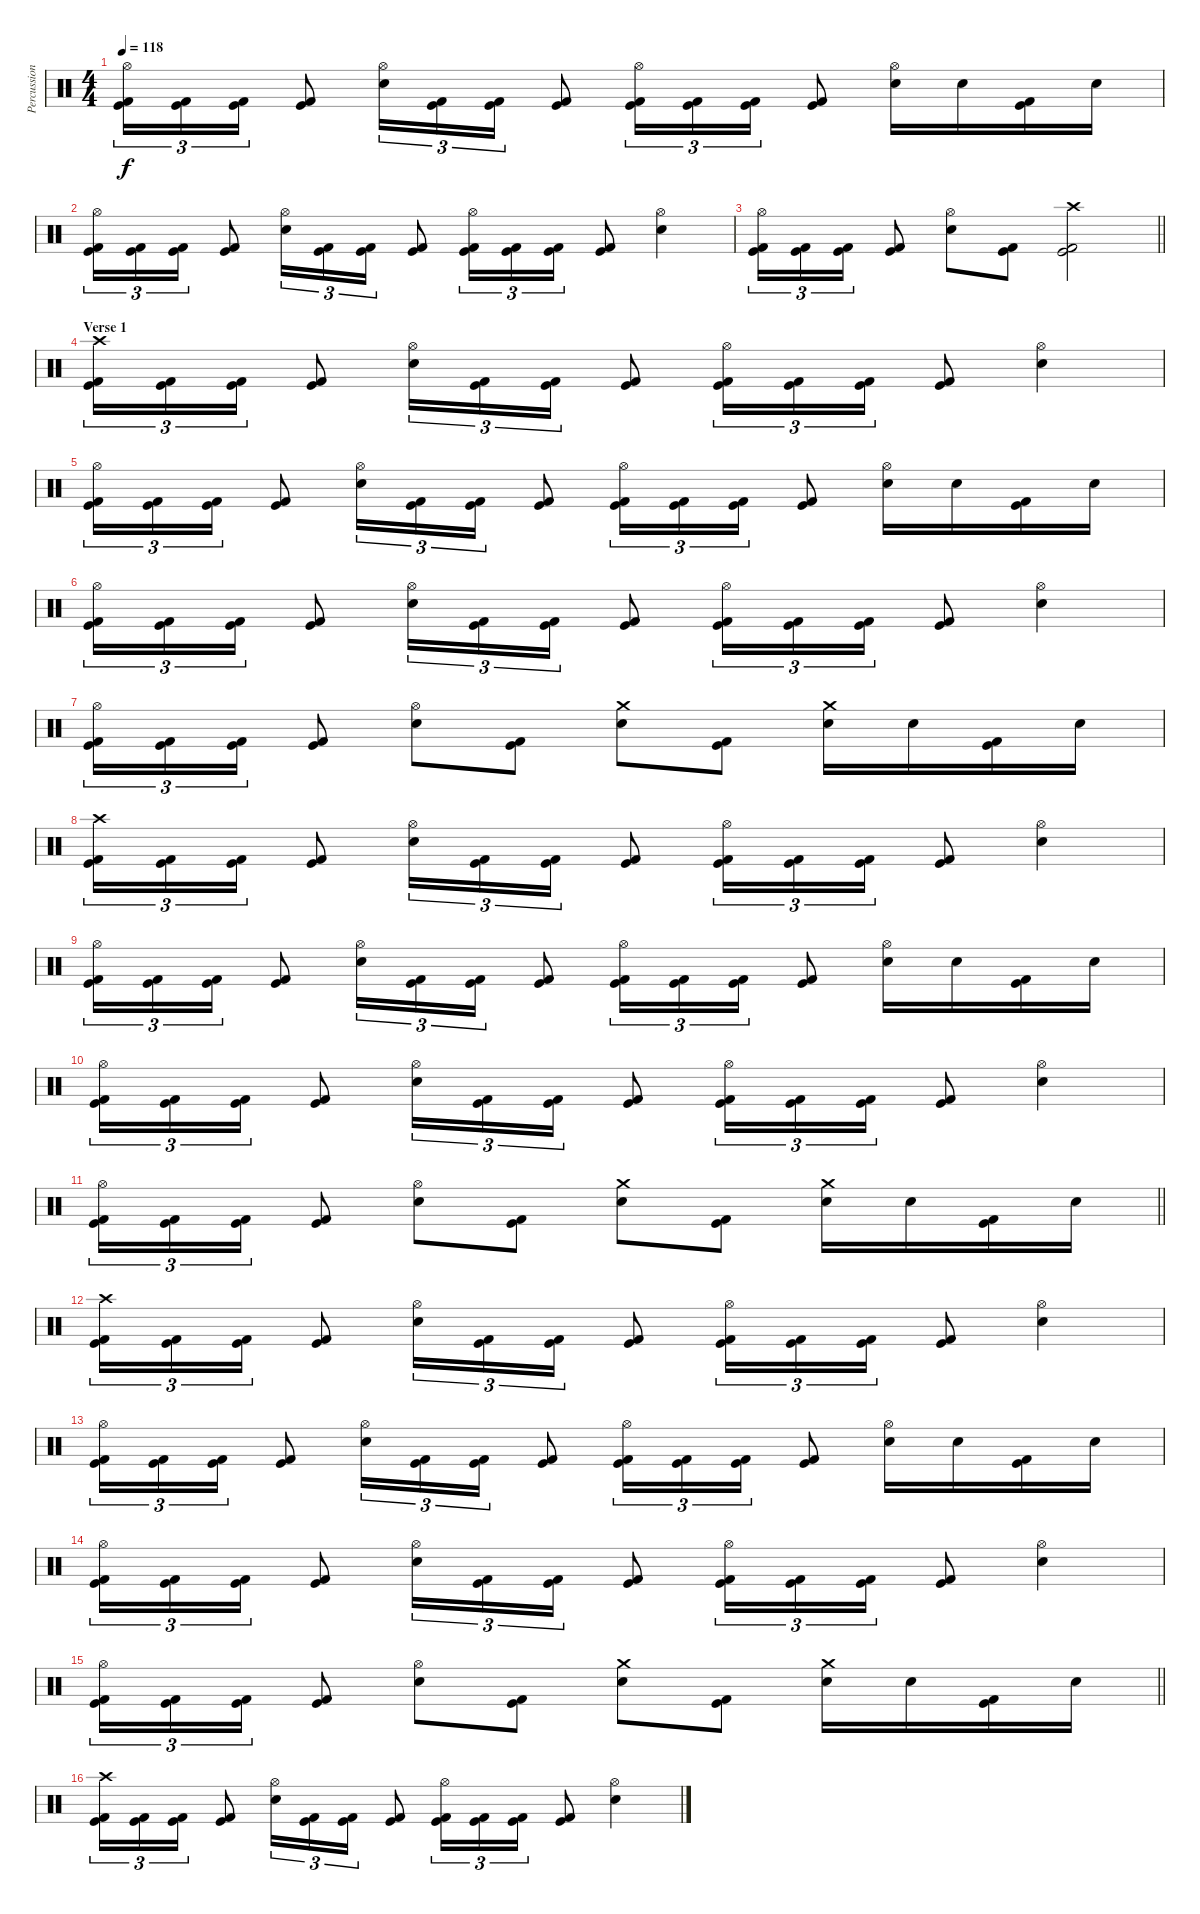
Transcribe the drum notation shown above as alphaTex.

\track ("Percussion" "Percussion") {instrument percussion}
\staff {score}
\articulation defaults
\ts (4 4)
\tempo 118
\clef neutral
\ks c
("Hi-Hat (open)" "Kick (hit)" "Kick (hit) 2").16{tu (3 2) dy f} ("Kick (hit)" "Kick (hit) 2").16{tu (3 2)} ("Kick (hit)" "Kick (hit) 2").16{tu (3 2)} ("Kick (hit)" "Kick (hit) 2").8 ("Hi-Hat (open)" "Electric Snare (hit)").16{tu (3 2)} ("Kick (hit)" "Kick (hit) 2").16{tu (3 2)} ("Kick (hit)" "Kick (hit) 2").16{tu (3 2)} ("Kick (hit)" "Kick (hit) 2").8 ("Hi-Hat (open)" "Kick (hit)" "Kick (hit) 2").16{tu (3 2)} ("Kick (hit)" "Kick (hit) 2").16{tu (3 2)} ("Kick (hit)" "Kick (hit) 2").16{tu (3 2)} ("Kick (hit)" "Kick (hit) 2").8 ("Hi-Hat (open)" "Electric Snare (hit)").16 "Electric Snare (hit)".16 ("Kick (hit)" "Kick (hit) 2").16 "Electric Snare (hit)".16 |
("Hi-Hat (open)" "Kick (hit)" "Kick (hit) 2").16{tu (3 2)} ("Kick (hit)" "Kick (hit) 2").16{tu (3 2)} ("Kick (hit)" "Kick (hit) 2").16{tu (3 2)} ("Kick (hit)" "Kick (hit) 2").8 ("Hi-Hat (open)" "Electric Snare (hit)").16{tu (3 2)} ("Kick (hit)" "Kick (hit) 2").16{tu (3 2)} ("Kick (hit)" "Kick (hit) 2").16{tu (3 2)} ("Kick (hit)" "Kick (hit) 2").8 ("Hi-Hat (open)" "Kick (hit)" "Kick (hit) 2").16{tu (3 2)} ("Kick (hit)" "Kick (hit) 2").16{tu (3 2)} ("Kick (hit)" "Kick (hit) 2").16{tu (3 2)} ("Kick (hit)" "Kick (hit) 2").8 ("Hi-Hat (open)" "Electric Snare (hit)").4 |
\barLineRight lightlight
("Hi-Hat (open)" "Kick (hit)" "Kick (hit) 2").16{tu (3 2)} ("Kick (hit)" "Kick (hit) 2").16{tu (3 2)} ("Kick (hit)" "Kick (hit) 2").16{tu (3 2)} ("Kick (hit)" "Kick (hit) 2").8 ("Hi-Hat (open)" "Electric Snare (hit)").8 ("Kick (hit)" "Kick (hit) 2").8 ("Crash high (hit)" "Kick (hit)" "Kick (hit) 2").2 |
\section ("" "Verse 1")
("Crash high (hit)" "Kick (hit)" "Kick (hit) 2").16{tu (3 2)} ("Kick (hit)" "Kick (hit) 2").16{tu (3 2)} ("Kick (hit)" "Kick (hit) 2").16{tu (3 2)} ("Kick (hit)" "Kick (hit) 2").8 ("Hi-Hat (open)" "Electric Snare (hit)").16{tu (3 2)} ("Kick (hit)" "Kick (hit) 2").16{tu (3 2)} ("Kick (hit)" "Kick (hit) 2").16{tu (3 2)} ("Kick (hit)" "Kick (hit) 2").8 ("Hi-Hat (open)" "Kick (hit)" "Kick (hit) 2").16{tu (3 2)} ("Kick (hit)" "Kick (hit) 2").16{tu (3 2)} ("Kick (hit)" "Kick (hit) 2").16{tu (3 2)} ("Kick (hit)" "Kick (hit) 2").8 ("Hi-Hat (open)" "Electric Snare (hit)").4 |
("Hi-Hat (open)" "Kick (hit)" "Kick (hit) 2").16{tu (3 2)} ("Kick (hit)" "Kick (hit) 2").16{tu (3 2)} ("Kick (hit)" "Kick (hit) 2").16{tu (3 2)} ("Kick (hit)" "Kick (hit) 2").8 ("Hi-Hat (open)" "Electric Snare (hit)").16{tu (3 2)} ("Kick (hit)" "Kick (hit) 2").16{tu (3 2)} ("Kick (hit)" "Kick (hit) 2").16{tu (3 2)} ("Kick (hit)" "Kick (hit) 2").8 ("Hi-Hat (open)" "Kick (hit)" "Kick (hit) 2").16{tu (3 2)} ("Kick (hit)" "Kick (hit) 2").16{tu (3 2)} ("Kick (hit)" "Kick (hit) 2").16{tu (3 2)} ("Kick (hit)" "Kick (hit) 2").8 ("Hi-Hat (open)" "Electric Snare (hit)").16 "Electric Snare (hit)".16 ("Kick (hit)" "Kick (hit) 2").16 "Electric Snare (hit)".16 |
("Hi-Hat (open)" "Kick (hit)" "Kick (hit) 2").16{tu (3 2)} ("Kick (hit)" "Kick (hit) 2").16{tu (3 2)} ("Kick (hit)" "Kick (hit) 2").16{tu (3 2)} ("Kick (hit)" "Kick (hit) 2").8 ("Hi-Hat (open)" "Electric Snare (hit)").16{tu (3 2)} ("Kick (hit)" "Kick (hit) 2").16{tu (3 2)} ("Kick (hit)" "Kick (hit) 2").16{tu (3 2)} ("Kick (hit)" "Kick (hit) 2").8 ("Hi-Hat (open)" "Kick (hit)" "Kick (hit) 2").16{tu (3 2)} ("Kick (hit)" "Kick (hit) 2").16{tu (3 2)} ("Kick (hit)" "Kick (hit) 2").16{tu (3 2)} ("Kick (hit)" "Kick (hit) 2").8 ("Hi-Hat (open)" "Electric Snare (hit)").4 |
("Hi-Hat (open)" "Kick (hit)" "Kick (hit) 2").16{tu (3 2)} ("Kick (hit)" "Kick (hit) 2").16{tu (3 2)} ("Kick (hit)" "Kick (hit) 2").16{tu (3 2)} ("Kick (hit)" "Kick (hit) 2").8 ("Hi-Hat (open)" "Electric Snare (hit)").8 ("Kick (hit)" "Kick (hit) 2").8 ("Crash medium (hit)" "Electric Snare (hit)").8 ("Kick (hit)" "Kick (hit) 2").8 ("Crash medium (hit)" "Electric Snare (hit)").16 "Electric Snare (hit)".16 ("Kick (hit)" "Kick (hit) 2").16 "Electric Snare (hit)".16 |
("Crash high (hit)" "Kick (hit)" "Kick (hit) 2").16{tu (3 2)} ("Kick (hit)" "Kick (hit) 2").16{tu (3 2)} ("Kick (hit)" "Kick (hit) 2").16{tu (3 2)} ("Kick (hit)" "Kick (hit) 2").8 ("Hi-Hat (open)" "Electric Snare (hit)").16{tu (3 2)} ("Kick (hit)" "Kick (hit) 2").16{tu (3 2)} ("Kick (hit)" "Kick (hit) 2").16{tu (3 2)} ("Kick (hit)" "Kick (hit) 2").8 ("Hi-Hat (open)" "Kick (hit)" "Kick (hit) 2").16{tu (3 2)} ("Kick (hit)" "Kick (hit) 2").16{tu (3 2)} ("Kick (hit)" "Kick (hit) 2").16{tu (3 2)} ("Kick (hit)" "Kick (hit) 2").8 ("Hi-Hat (open)" "Electric Snare (hit)").4 |
("Hi-Hat (open)" "Kick (hit)" "Kick (hit) 2").16{tu (3 2)} ("Kick (hit)" "Kick (hit) 2").16{tu (3 2)} ("Kick (hit)" "Kick (hit) 2").16{tu (3 2)} ("Kick (hit)" "Kick (hit) 2").8 ("Hi-Hat (open)" "Electric Snare (hit)").16{tu (3 2)} ("Kick (hit)" "Kick (hit) 2").16{tu (3 2)} ("Kick (hit)" "Kick (hit) 2").16{tu (3 2)} ("Kick (hit)" "Kick (hit) 2").8 ("Hi-Hat (open)" "Kick (hit)" "Kick (hit) 2").16{tu (3 2)} ("Kick (hit)" "Kick (hit) 2").16{tu (3 2)} ("Kick (hit)" "Kick (hit) 2").16{tu (3 2)} ("Kick (hit)" "Kick (hit) 2").8 ("Hi-Hat (open)" "Electric Snare (hit)").16 "Electric Snare (hit)".16 ("Kick (hit)" "Kick (hit) 2").16 "Electric Snare (hit)".16 |
("Hi-Hat (open)" "Kick (hit)" "Kick (hit) 2").16{tu (3 2)} ("Kick (hit)" "Kick (hit) 2").16{tu (3 2)} ("Kick (hit)" "Kick (hit) 2").16{tu (3 2)} ("Kick (hit)" "Kick (hit) 2").8 ("Hi-Hat (open)" "Electric Snare (hit)").16{tu (3 2)} ("Kick (hit)" "Kick (hit) 2").16{tu (3 2)} ("Kick (hit)" "Kick (hit) 2").16{tu (3 2)} ("Kick (hit)" "Kick (hit) 2").8 ("Hi-Hat (open)" "Kick (hit)" "Kick (hit) 2").16{tu (3 2)} ("Kick (hit)" "Kick (hit) 2").16{tu (3 2)} ("Kick (hit)" "Kick (hit) 2").16{tu (3 2)} ("Kick (hit)" "Kick (hit) 2").8 ("Hi-Hat (open)" "Electric Snare (hit)").4 |
\barLineRight lightlight
("Hi-Hat (open)" "Kick (hit)" "Kick (hit) 2").16{tu (3 2)} ("Kick (hit)" "Kick (hit) 2").16{tu (3 2)} ("Kick (hit)" "Kick (hit) 2").16{tu (3 2)} ("Kick (hit)" "Kick (hit) 2").8 ("Hi-Hat (open)" "Electric Snare (hit)").8 ("Kick (hit)" "Kick (hit) 2").8 ("Crash medium (hit)" "Electric Snare (hit)").8 ("Kick (hit)" "Kick (hit) 2").8 ("Crash medium (hit)" "Electric Snare (hit)").16 "Electric Snare (hit)".16 ("Kick (hit)" "Kick (hit) 2").16 "Electric Snare (hit)".16 |
\section ("" "")
("Crash high (hit)" "Kick (hit)" "Kick (hit) 2").16{tu (3 2)} ("Kick (hit)" "Kick (hit) 2").16{tu (3 2)} ("Kick (hit)" "Kick (hit) 2").16{tu (3 2)} ("Kick (hit)" "Kick (hit) 2").8 ("Hi-Hat (open)" "Electric Snare (hit)").16{tu (3 2)} ("Kick (hit)" "Kick (hit) 2").16{tu (3 2)} ("Kick (hit)" "Kick (hit) 2").16{tu (3 2)} ("Kick (hit)" "Kick (hit) 2").8 ("Hi-Hat (open)" "Kick (hit)" "Kick (hit) 2").16{tu (3 2)} ("Kick (hit)" "Kick (hit) 2").16{tu (3 2)} ("Kick (hit)" "Kick (hit) 2").16{tu (3 2)} ("Kick (hit)" "Kick (hit) 2").8 ("Hi-Hat (open)" "Electric Snare (hit)").4 |
("Hi-Hat (open)" "Kick (hit)" "Kick (hit) 2").16{tu (3 2)} ("Kick (hit)" "Kick (hit) 2").16{tu (3 2)} ("Kick (hit)" "Kick (hit) 2").16{tu (3 2)} ("Kick (hit)" "Kick (hit) 2").8 ("Hi-Hat (open)" "Electric Snare (hit)").16{tu (3 2)} ("Kick (hit)" "Kick (hit) 2").16{tu (3 2)} ("Kick (hit)" "Kick (hit) 2").16{tu (3 2)} ("Kick (hit)" "Kick (hit) 2").8 ("Hi-Hat (open)" "Kick (hit)" "Kick (hit) 2").16{tu (3 2)} ("Kick (hit)" "Kick (hit) 2").16{tu (3 2)} ("Kick (hit)" "Kick (hit) 2").16{tu (3 2)} ("Kick (hit)" "Kick (hit) 2").8 ("Hi-Hat (open)" "Electric Snare (hit)").16 "Electric Snare (hit)".16 ("Kick (hit)" "Kick (hit) 2").16 "Electric Snare (hit)".16 |
("Hi-Hat (open)" "Kick (hit)" "Kick (hit) 2").16{tu (3 2)} ("Kick (hit)" "Kick (hit) 2").16{tu (3 2)} ("Kick (hit)" "Kick (hit) 2").16{tu (3 2)} ("Kick (hit)" "Kick (hit) 2").8 ("Hi-Hat (open)" "Electric Snare (hit)").16{tu (3 2)} ("Kick (hit)" "Kick (hit) 2").16{tu (3 2)} ("Kick (hit)" "Kick (hit) 2").16{tu (3 2)} ("Kick (hit)" "Kick (hit) 2").8 ("Hi-Hat (open)" "Kick (hit)" "Kick (hit) 2").16{tu (3 2)} ("Kick (hit)" "Kick (hit) 2").16{tu (3 2)} ("Kick (hit)" "Kick (hit) 2").16{tu (3 2)} ("Kick (hit)" "Kick (hit) 2").8 ("Hi-Hat (open)" "Electric Snare (hit)").4 |
\barLineRight lightlight
("Hi-Hat (open)" "Kick (hit)" "Kick (hit) 2").16{tu (3 2)} ("Kick (hit)" "Kick (hit) 2").16{tu (3 2)} ("Kick (hit)" "Kick (hit) 2").16{tu (3 2)} ("Kick (hit)" "Kick (hit) 2").8 ("Hi-Hat (open)" "Electric Snare (hit)").8 ("Kick (hit)" "Kick (hit) 2").8 ("Crash medium (hit)" "Electric Snare (hit)").8 ("Kick (hit)" "Kick (hit) 2").8 ("Crash medium (hit)" "Electric Snare (hit)").16 "Electric Snare (hit)".16 ("Kick (hit)" "Kick (hit) 2").16 "Electric Snare (hit)".16 |
("Crash high (hit)" "Kick (hit)" "Kick (hit) 2").16{tu (3 2)} ("Kick (hit)" "Kick (hit) 2").16{tu (3 2)} ("Kick (hit)" "Kick (hit) 2").16{tu (3 2)} ("Kick (hit)" "Kick (hit) 2").8 ("Hi-Hat (open)" "Electric Snare (hit)").16{tu (3 2)} ("Kick (hit)" "Kick (hit) 2").16{tu (3 2)} ("Kick (hit)" "Kick (hit) 2").16{tu (3 2)} ("Kick (hit)" "Kick (hit) 2").8 ("Hi-Hat (open)" "Kick (hit)" "Kick (hit) 2").16{tu (3 2)} ("Kick (hit)" "Kick (hit) 2").16{tu (3 2)} ("Kick (hit)" "Kick (hit) 2").16{tu (3 2)} ("Kick (hit)" "Kick (hit) 2").8 ("Hi-Hat (open)" "Electric Snare (hit)").4
